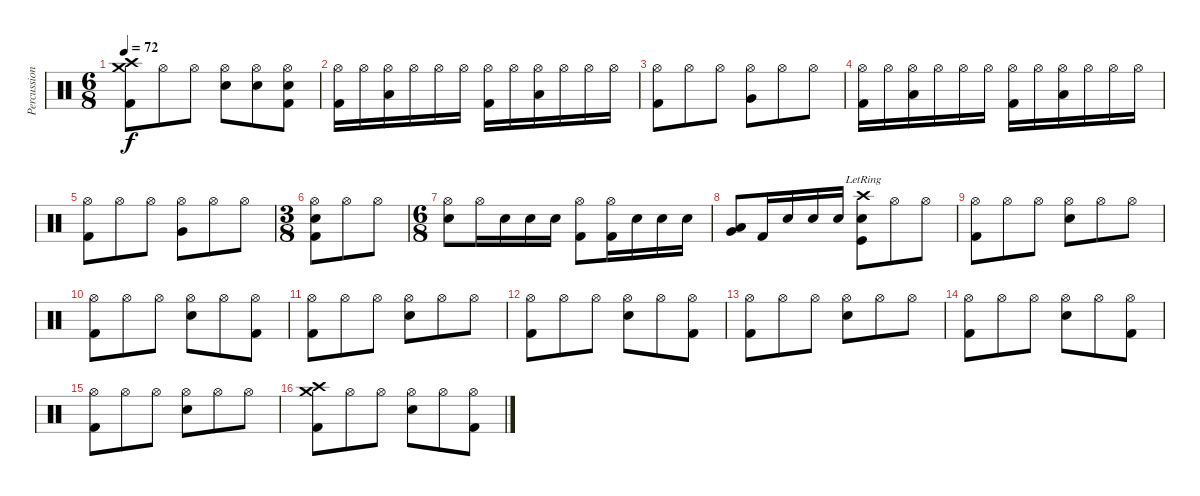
\track ("Percussioni" "Percussion") {instrument percussion}
\staff {score}
\articulation defaults
\ts (6 8)
\tempo 72
\clef neutral
\ks c
("Crash high (hit)" "Crash medium (hit)" "Kick (hit) 2").8{dy f} "Hi-Hat (open)".8 "Hi-Hat (open)".8 ("Hi-Hat (open)" "Electric Snare (hit)").8 ("Hi-Hat (open)" "Electric Snare (hit)").8 ("Hi-Hat (open)" "Electric Snare (hit)" "Kick (hit) 2").8 |
("Hi-Hat (open)" "Kick (hit) 2").16 "Hi-Hat (open)".16 ("Hi-Hat (open)" "Low Tom (hit)").16 "Hi-Hat (open)".16 "Hi-Hat (open)".16 "Hi-Hat (open)".16 ("Hi-Hat (open)" "Kick (hit) 2").16 "Hi-Hat (open)".16 ("Hi-Hat (open)" "Low Tom (hit)").16 "Hi-Hat (open)".16 "Hi-Hat (open)".16 "Hi-Hat (open)".16 |
("Hi-Hat (open)" "Kick (hit) 2").8 "Hi-Hat (open)".8 "Hi-Hat (open)".8 ("Hi-Hat (open)" "Very Low Tom (hit)").8 "Hi-Hat (open)".8 "Hi-Hat (open)".8 |
("Hi-Hat (open)" "Kick (hit) 2").16 "Hi-Hat (open)".16 ("Hi-Hat (open)" "Low Tom (hit)").16 "Hi-Hat (open)".16 "Hi-Hat (open)".16 "Hi-Hat (open)".16 ("Hi-Hat (open)" "Kick (hit) 2").16 "Hi-Hat (open)".16 ("Hi-Hat (open)" "Low Tom (hit)").16 "Hi-Hat (open)".16 "Hi-Hat (open)".16 "Hi-Hat (open)".16 |
("Hi-Hat (open)" "Kick (hit) 2").8 "Hi-Hat (open)".8 "Hi-Hat (open)".8 ("Hi-Hat (open)" "Very Low Tom (hit)").8 "Hi-Hat (open)".8 "Hi-Hat (open)".8 |
\ts (3 8)
("Hi-Hat (open)" "Electric Snare (hit)" "Kick (hit) 2").8 "Hi-Hat (open)".8 "Hi-Hat (open)".8 |
\ts (6 8)
("Hi-Hat (open)" "Electric Snare (hit)").8 "Hi-Hat (open)".16 "Electric Snare (hit)".16 "Electric Snare (hit)".16 "Electric Snare (hit)".16 ("Hi-Hat (open)" "Kick (hit) 2").8 ("Hi-Hat (open)" "Kick (hit) 2").16 "Electric Snare (hit)".16 "Electric Snare (hit)".16 "Electric Snare (hit)".16 |
("Low Tom (hit)" "Very Low Tom (hit)").8 "Kick (hit) 2".16 "Electric Snare (hit)".16 "Electric Snare (hit)".16 "Electric Snare (hit)".16 ("Electric Snare (hit)" "Crash high (hit)"{lr} "Kick (hit)").8 "Hi-Hat (open)".8 "Hi-Hat (open)".8 |
("Hi-Hat (open)" "Kick (hit) 2").8 "Hi-Hat (open)".8 "Hi-Hat (open)".8 ("Hi-Hat (open)" "Electric Snare (hit)").8 "Hi-Hat (open)".8 "Hi-Hat (open)".8 |
("Hi-Hat (open)" "Kick (hit) 2").8 "Hi-Hat (open)".8 "Hi-Hat (open)".8 ("Hi-Hat (open)" "Electric Snare (hit)").8 "Hi-Hat (open)".8 ("Hi-Hat (open)" "Kick (hit) 2").8 |
("Hi-Hat (open)" "Kick (hit) 2").8 "Hi-Hat (open)".8 "Hi-Hat (open)".8 ("Hi-Hat (open)" "Electric Snare (hit)").8 "Hi-Hat (open)".8 "Hi-Hat (open)".8 |
("Hi-Hat (open)" "Kick (hit) 2").8 "Hi-Hat (open)".8 "Hi-Hat (open)".8 ("Hi-Hat (open)" "Electric Snare (hit)").8 "Hi-Hat (open)".8 ("Hi-Hat (open)" "Kick (hit) 2").8 |
("Hi-Hat (open)" "Kick (hit) 2").8 "Hi-Hat (open)".8 "Hi-Hat (open)".8 ("Hi-Hat (open)" "Electric Snare (hit)").8 "Hi-Hat (open)".8 "Hi-Hat (open)".8 |
("Hi-Hat (open)" "Kick (hit) 2").8 "Hi-Hat (open)".8 "Hi-Hat (open)".8 ("Hi-Hat (open)" "Electric Snare (hit)").8 "Hi-Hat (open)".8 ("Hi-Hat (open)" "Kick (hit) 2").8 |
("Hi-Hat (open)" "Kick (hit) 2").8 "Hi-Hat (open)".8 "Hi-Hat (open)".8 ("Hi-Hat (open)" "Electric Snare (hit)").8 "Hi-Hat (open)".8 "Hi-Hat (open)".8 |
("Crash high (hit)" "Crash medium (hit)" "Kick (hit) 2").8 "Hi-Hat (open)".8 "Hi-Hat (open)".8 ("Hi-Hat (open)" "Electric Snare (hit)").8 "Hi-Hat (open)".8 ("Hi-Hat (open)" "Kick (hit) 2").8
